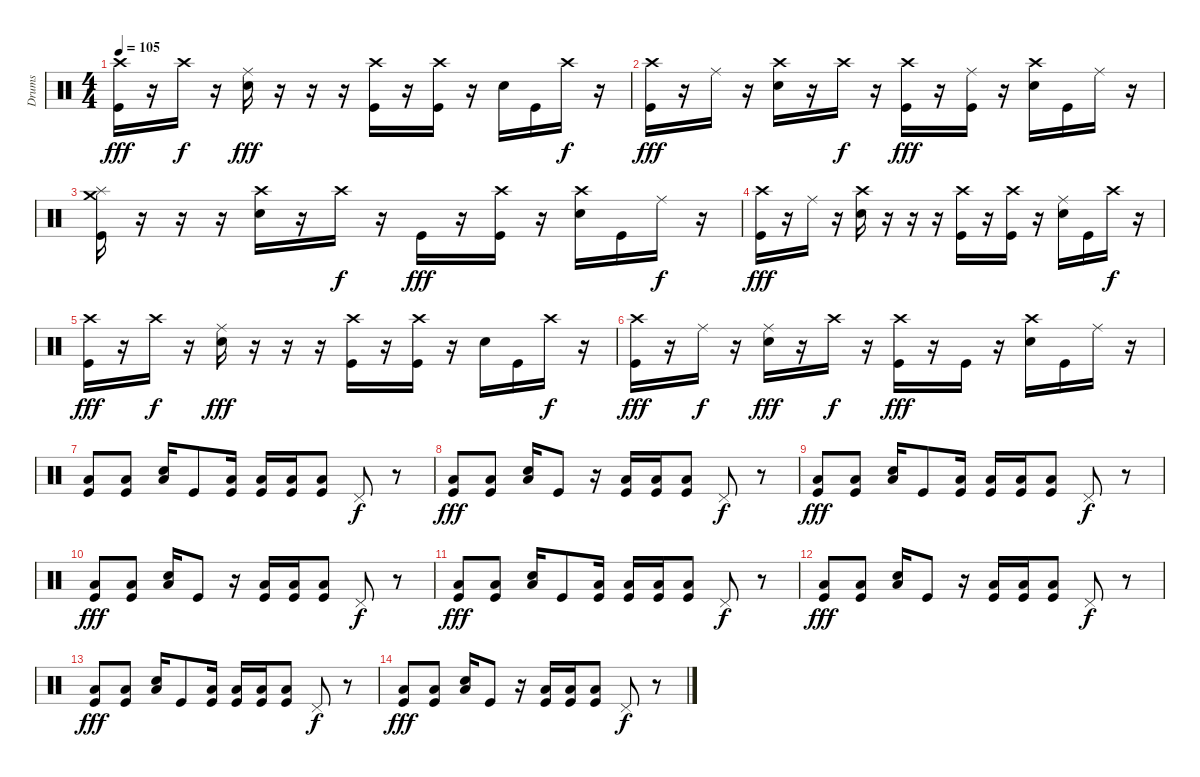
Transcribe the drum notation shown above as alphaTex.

\track ("Drums" "Drums") {instrument percussion}
\staff {score}
\articulation defaults
\ts (4 4)
\tempo 105
\clef neutral
\ks c
("Crash high (hit)" "Kick (hit)").16{dy fff} r.16 "Crash high (hit)".16{dy f} r.16 ("Ride (middle)" "Electric Snare (hit)").16{dy fff} r.16 r.16 r.16 ("Crash high (hit)" "Kick (hit)").16 r.16 ("Crash high (hit)" "Kick (hit)").16 r.16 "Electric Snare (hit)".16 "Kick (hit)".16 "Crash high (hit)".16{dy f} r.16 |
("Crash high (hit)" "Kick (hit)").16{dy fff} r.16 "Ride (middle)".16 r.16 ("Crash high (hit)" "Electric Snare (hit)").16 r.16 "Crash high (hit)".16{dy f} r.16 ("Crash high (hit)" "Kick (hit)").16{dy fff} r.16 ("Ride (middle)" "Kick (hit)").16 r.16 ("Crash high (hit)" "Electric Snare (hit)").16 "Kick (hit)".16 "Ride (middle)".16 r.16 |
("Crash medium (hit)" "Splash (hit)" "Kick (hit)").16 r.16 r.16 r.16 ("Crash high (hit)" "Electric Snare (hit)").16 r.16 "Crash high (hit)".16{dy f} r.16 "Kick (hit)".16{dy fff} r.16 ("Crash high (hit)" "Kick (hit)").16 r.16 ("Crash high (hit)" "Electric Snare (hit)").16 "Kick (hit)".16 "Ride (middle)".16{dy f} r.16 |
("Crash high (hit)" "Kick (hit)").16{dy fff} r.16 "Ride (middle)".16 r.16 ("Crash high (hit)" "Electric Snare (hit)").16 r.16 r.16 r.16 ("Crash high (hit)" "Kick (hit)").16 r.16 ("Crash high (hit)" "Kick (hit)").16 r.16 ("Ride (middle)" "Electric Snare (hit)").16 "Kick (hit)".16 "Crash high (hit)".16{dy f} r.16 |
("Crash high (hit)" "Kick (hit)").16{dy fff} r.16 "Crash high (hit)".16{dy f} r.16 ("Ride (middle)" "Electric Snare (hit)").16{dy fff} r.16 r.16 r.16 ("Crash high (hit)" "Kick (hit)").16 r.16 ("Crash high (hit)" "Kick (hit)").16 r.16 "Electric Snare (hit)".16 "Kick (hit)".16 "Crash high (hit)".16{dy f} r.16 |
("Crash high (hit)" "Kick (hit)").16{dy fff} r.16 "Ride (middle)".16{dy f} r.16 ("Ride (middle)" "Electric Snare (hit)").16{dy fff} r.16 "Crash high (hit)".16{dy f} r.16 ("Crash high (hit)" "Kick (hit)").16{dy fff} r.16 "Kick (hit)".16 r.16 ("Crash high (hit)" "Electric Snare (hit)").16 "Kick (hit)".16 "Ride (middle)".16 r.16 |
("Low Floor Tom (hit)" "Kick (hit)").8 ("Low Floor Tom (hit)" "Kick (hit)").8 ("Low Floor Tom (hit)" "Electric Snare (hit)").16 "Kick (hit)".8 ("Low Floor Tom (hit)" "Kick (hit)").16 ("Low Floor Tom (hit)" "Kick (hit)").16 ("Low Floor Tom (hit)" "Kick (hit)").16 ("Low Floor Tom (hit)" "Kick (hit)").8 "Pedal Hi-Hat (hit)".8{dy f} r.8 |
("Low Floor Tom (hit)" "Kick (hit)").8{dy fff} ("Low Floor Tom (hit)" "Kick (hit)").8 ("Low Floor Tom (hit)" "Electric Snare (hit)").16 "Kick (hit)".8 r.16 ("Low Floor Tom (hit)" "Kick (hit)").16 ("Low Floor Tom (hit)" "Kick (hit)").16 ("Low Floor Tom (hit)" "Kick (hit)").8 "Pedal Hi-Hat (hit)".8{dy f} r.8 |
("Low Floor Tom (hit)" "Kick (hit)").8{dy fff} ("Low Floor Tom (hit)" "Kick (hit)").8 ("Low Floor Tom (hit)" "Electric Snare (hit)").16 "Kick (hit)".8 ("Low Floor Tom (hit)" "Kick (hit)").16 ("Low Floor Tom (hit)" "Kick (hit)").16 ("Low Floor Tom (hit)" "Kick (hit)").16 ("Low Floor Tom (hit)" "Kick (hit)").8 "Pedal Hi-Hat (hit)".8{dy f} r.8 |
("Low Floor Tom (hit)" "Kick (hit)").8{dy fff} ("Low Floor Tom (hit)" "Kick (hit)").8 ("Low Floor Tom (hit)" "Electric Snare (hit)").16 "Kick (hit)".8 r.16 ("Low Floor Tom (hit)" "Kick (hit)").16 ("Low Floor Tom (hit)" "Kick (hit)").16 ("Low Floor Tom (hit)" "Kick (hit)").8 "Pedal Hi-Hat (hit)".8{dy f} r.8 |
("Low Floor Tom (hit)" "Kick (hit)").8{dy fff} ("Low Floor Tom (hit)" "Kick (hit)").8 ("Low Floor Tom (hit)" "Electric Snare (hit)").16 "Kick (hit)".8 ("Low Floor Tom (hit)" "Kick (hit)").16 ("Low Floor Tom (hit)" "Kick (hit)").16 ("Low Floor Tom (hit)" "Kick (hit)").16 ("Low Floor Tom (hit)" "Kick (hit)").8 "Pedal Hi-Hat (hit)".8{dy f} r.8 |
("Low Floor Tom (hit)" "Kick (hit)").8{dy fff} ("Low Floor Tom (hit)" "Kick (hit)").8 ("Low Floor Tom (hit)" "Electric Snare (hit)").16 "Kick (hit)".8 r.16 ("Low Floor Tom (hit)" "Kick (hit)").16 ("Low Floor Tom (hit)" "Kick (hit)").16 ("Low Floor Tom (hit)" "Kick (hit)").8 "Pedal Hi-Hat (hit)".8{dy f} r.8 |
("Low Floor Tom (hit)" "Kick (hit)").8{dy fff} ("Low Floor Tom (hit)" "Kick (hit)").8 ("Low Floor Tom (hit)" "Electric Snare (hit)").16 "Kick (hit)".8 ("Low Floor Tom (hit)" "Kick (hit)").16 ("Low Floor Tom (hit)" "Kick (hit)").16 ("Low Floor Tom (hit)" "Kick (hit)").16 ("Low Floor Tom (hit)" "Kick (hit)").8 "Pedal Hi-Hat (hit)".8{dy f} r.8 |
("Low Floor Tom (hit)" "Kick (hit)").8{dy fff} ("Low Floor Tom (hit)" "Kick (hit)").8 ("Low Floor Tom (hit)" "Electric Snare (hit)").16 "Kick (hit)".8 r.16 ("Low Floor Tom (hit)" "Kick (hit)").16 ("Low Floor Tom (hit)" "Kick (hit)").16 ("Low Floor Tom (hit)" "Kick (hit)").8 "Pedal Hi-Hat (hit)".8{dy f} r.8
